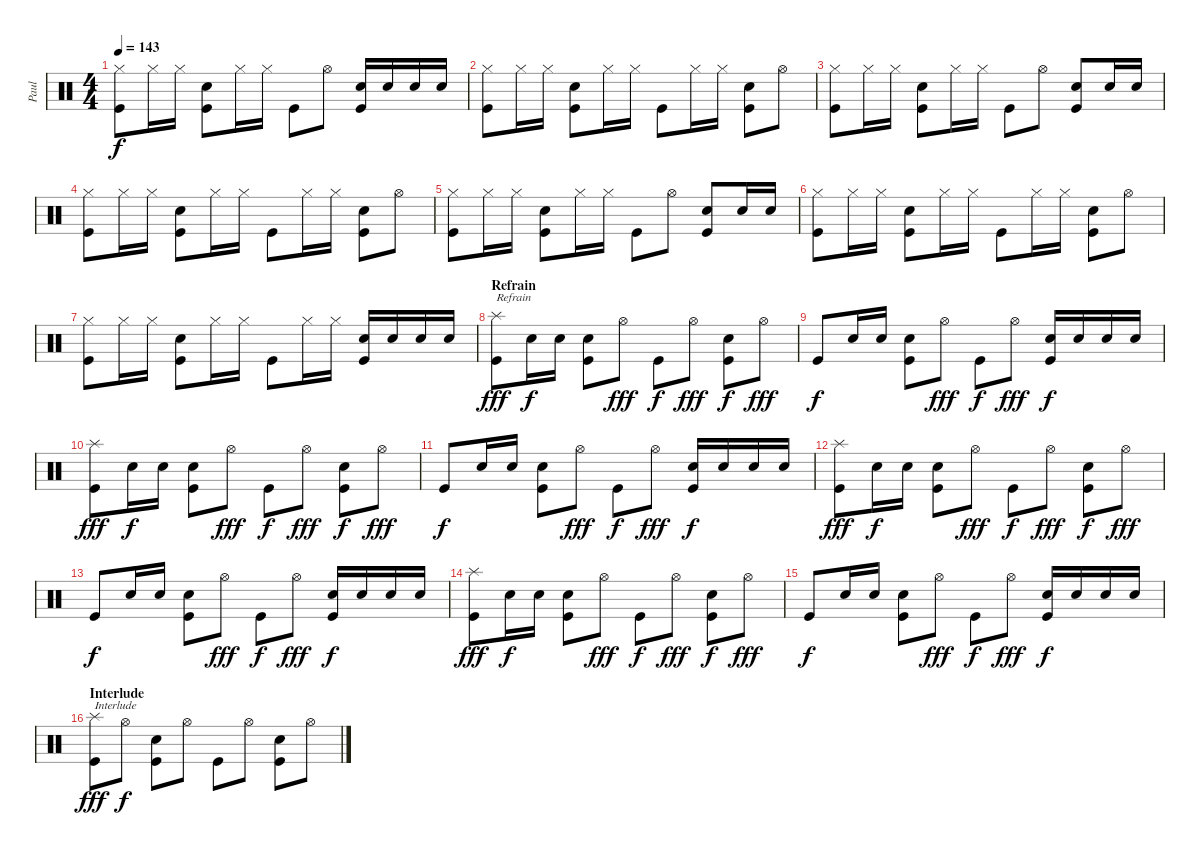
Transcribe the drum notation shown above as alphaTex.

\track ("Paul" "Paul") {instrument percussion}
\staff {score}
\articulation defaults
\ts (4 4)
\tempo 143
\clef neutral
\ks c
("Hi-Hat (closed)" "Kick (hit)").8{dy f} "Hi-Hat (closed)".16 "Hi-Hat (closed)".16 ("Kick (hit)" "Electric Snare (hit)").8 "Hi-Hat (closed)".16 "Hi-Hat (closed)".16 "Kick (hit)".8 "Hi-Hat (open)".8 ("Kick (hit)" "Electric Snare (hit)").16 "Electric Snare (hit)".16 "Electric Snare (hit)".16 "Electric Snare (hit)".16 |
("Hi-Hat (closed)" "Kick (hit)").8 "Hi-Hat (closed)".16 "Hi-Hat (closed)".16 ("Kick (hit)" "Electric Snare (hit)").8 "Hi-Hat (closed)".16 "Hi-Hat (closed)".16 "Kick (hit)".8 "Hi-Hat (closed)".16 "Hi-Hat (closed)".16 ("Kick (hit)" "Electric Snare (hit)").8 "Hi-Hat (open)".8 |
("Hi-Hat (closed)" "Kick (hit)").8 "Hi-Hat (closed)".16 "Hi-Hat (closed)".16 ("Kick (hit)" "Electric Snare (hit)").8 "Hi-Hat (closed)".16 "Hi-Hat (closed)".16 "Kick (hit)".8 "Hi-Hat (open)".8 ("Kick (hit)" "Electric Snare (hit)").8 "Electric Snare (hit)".16 "Electric Snare (hit)".16 |
("Hi-Hat (closed)" "Kick (hit)").8 "Hi-Hat (closed)".16 "Hi-Hat (closed)".16 ("Kick (hit)" "Electric Snare (hit)").8 "Hi-Hat (closed)".16 "Hi-Hat (closed)".16 "Kick (hit)".8 "Hi-Hat (closed)".16 "Hi-Hat (closed)".16 ("Kick (hit)" "Electric Snare (hit)").8 "Hi-Hat (open)".8 |
("Hi-Hat (closed)" "Kick (hit)").8 "Hi-Hat (closed)".16 "Hi-Hat (closed)".16 ("Kick (hit)" "Electric Snare (hit)").8 "Hi-Hat (closed)".16 "Hi-Hat (closed)".16 "Kick (hit)".8 "Hi-Hat (open)".8 ("Kick (hit)" "Electric Snare (hit)").8 "Electric Snare (hit)".16 "Electric Snare (hit)".16 |
("Hi-Hat (closed)" "Kick (hit)").8 "Hi-Hat (closed)".16 "Hi-Hat (closed)".16 ("Kick (hit)" "Electric Snare (hit)").8 "Hi-Hat (closed)".16 "Hi-Hat (closed)".16 "Kick (hit)".8 "Hi-Hat (closed)".16 "Hi-Hat (closed)".16 ("Kick (hit)" "Electric Snare (hit)").8 "Hi-Hat (open)".8 |
("Hi-Hat (closed)" "Kick (hit)").8 "Hi-Hat (closed)".16 "Hi-Hat (closed)".16 ("Kick (hit)" "Electric Snare (hit)").8 "Hi-Hat (closed)".16 "Hi-Hat (closed)".16 "Kick (hit)".8 "Hi-Hat (closed)".16 "Hi-Hat (closed)".16 ("Kick (hit)" "Electric Snare (hit)").16 "Electric Snare (hit)".16 "Electric Snare (hit)".16 "Electric Snare (hit)".16 |
\section ("" "Refrain")
("Splash (hit)" "Kick (hit)").8{txt "Refrain" dy fff} "Electric Snare (hit)".16{dy f} "Electric Snare (hit)".16 ("Kick (hit)" "Electric Snare (hit)").8 "Hi-Hat (open)".8{dy fff} "Kick (hit)".8{dy f} "Hi-Hat (open)".8{dy fff} ("Kick (hit)" "Electric Snare (hit)").8{dy f} "Hi-Hat (open)".8{dy fff} |
"Kick (hit)".8{dy f} "Electric Snare (hit)".16 "Electric Snare (hit)".16 ("Kick (hit)" "Electric Snare (hit)").8 "Hi-Hat (open)".8{dy fff} "Kick (hit)".8{dy f} "Hi-Hat (open)".8{dy fff} ("Kick (hit)" "Electric Snare (hit)").16{dy f} "Electric Snare (hit)".16 "Electric Snare (hit)".16 "Electric Snare (hit)".16 |
("Splash (hit)" "Kick (hit)").8{dy fff} "Electric Snare (hit)".16{dy f} "Electric Snare (hit)".16 ("Kick (hit)" "Electric Snare (hit)").8 "Hi-Hat (open)".8{dy fff} "Kick (hit)".8{dy f} "Hi-Hat (open)".8{dy fff} ("Kick (hit)" "Electric Snare (hit)").8{dy f} "Hi-Hat (open)".8{dy fff} |
"Kick (hit)".8{dy f} "Electric Snare (hit)".16 "Electric Snare (hit)".16 ("Kick (hit)" "Electric Snare (hit)").8 "Hi-Hat (open)".8{dy fff} "Kick (hit)".8{dy f} "Hi-Hat (open)".8{dy fff} ("Kick (hit)" "Electric Snare (hit)").16{dy f} "Electric Snare (hit)".16 "Electric Snare (hit)".16 "Electric Snare (hit)".16 |
("Splash (hit)" "Kick (hit)").8{dy fff} "Electric Snare (hit)".16{dy f} "Electric Snare (hit)".16 ("Kick (hit)" "Electric Snare (hit)").8 "Hi-Hat (open)".8{dy fff} "Kick (hit)".8{dy f} "Hi-Hat (open)".8{dy fff} ("Kick (hit)" "Electric Snare (hit)").8{dy f} "Hi-Hat (open)".8{dy fff} |
"Kick (hit)".8{dy f} "Electric Snare (hit)".16 "Electric Snare (hit)".16 ("Kick (hit)" "Electric Snare (hit)").8 "Hi-Hat (open)".8{dy fff} "Kick (hit)".8{dy f} "Hi-Hat (open)".8{dy fff} ("Kick (hit)" "Electric Snare (hit)").16{dy f} "Electric Snare (hit)".16 "Electric Snare (hit)".16 "Electric Snare (hit)".16 |
("Splash (hit)" "Kick (hit)").8{dy fff} "Electric Snare (hit)".16{dy f} "Electric Snare (hit)".16 ("Kick (hit)" "Electric Snare (hit)").8 "Hi-Hat (open)".8{dy fff} "Kick (hit)".8{dy f} "Hi-Hat (open)".8{dy fff} ("Kick (hit)" "Electric Snare (hit)").8{dy f} "Hi-Hat (open)".8{dy fff} |
"Kick (hit)".8{dy f} "Electric Snare (hit)".16 "Electric Snare (hit)".16 ("Kick (hit)" "Electric Snare (hit)").8 "Hi-Hat (open)".8{dy fff} "Kick (hit)".8{dy f} "Hi-Hat (open)".8{dy fff} ("Kick (hit)" "Electric Snare (hit)").16{dy f} "Electric Snare (hit)".16 "Electric Snare (hit)".16 "Electric Snare (hit)".16 |
\section ("" "Interlude")
("Kick (hit)" "Splash (hit)").8{txt "Interlude" dy fff} "Hi-Hat (open)".8{dy f} ("Kick (hit)" "Electric Snare (hit)").8 "Hi-Hat (open)".8 "Kick (hit)".8 "Hi-Hat (open)".8 ("Kick (hit)" "Electric Snare (hit)").8 "Hi-Hat (open)".8
